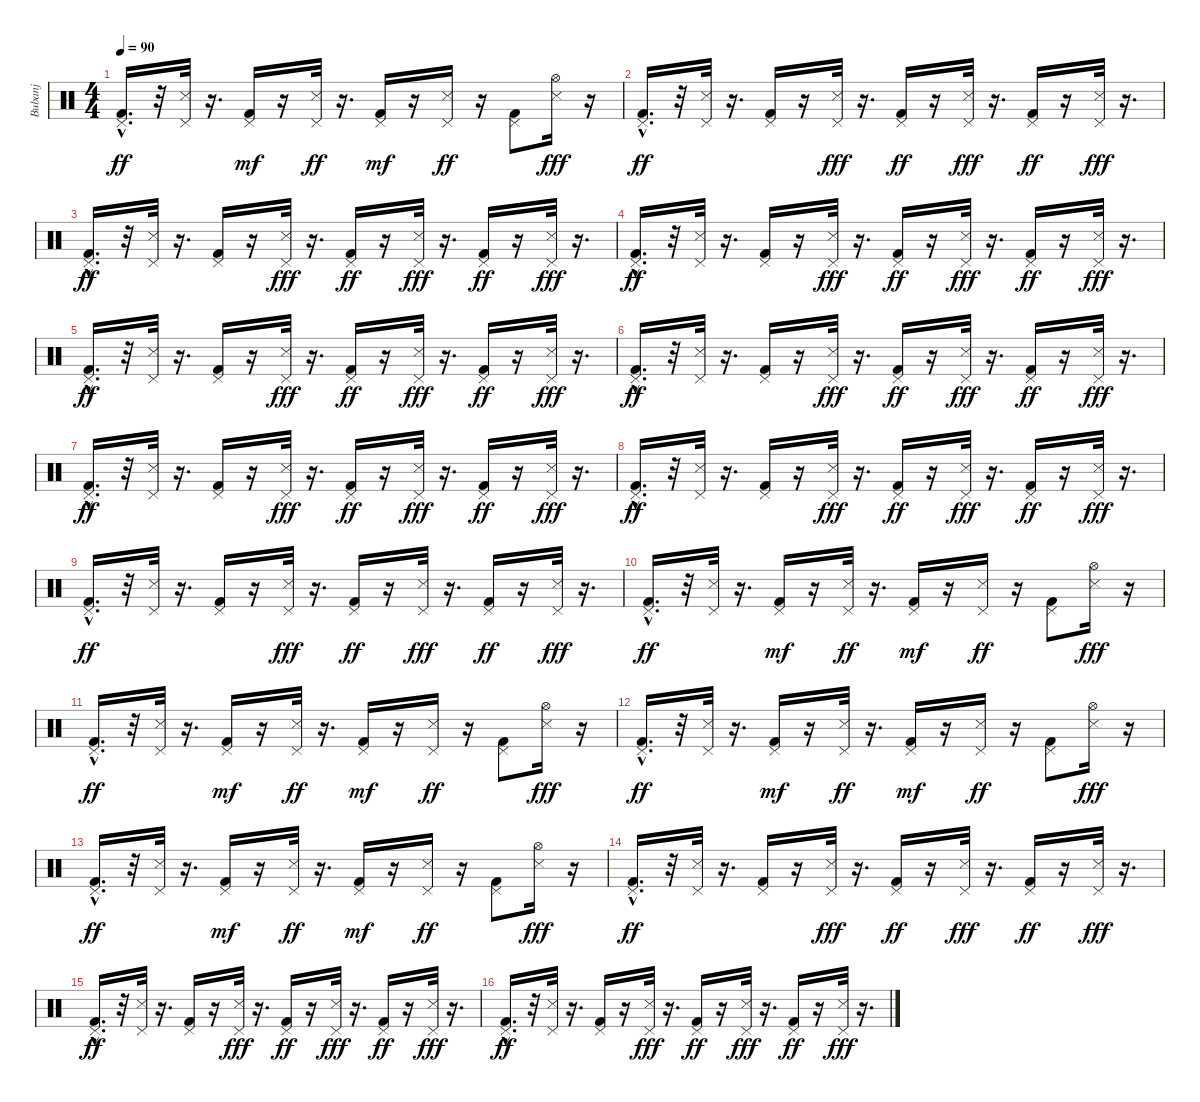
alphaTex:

\track ("Bubanj" "Bubanj") {instrument percussion}
\staff {score}
\articulation defaults
\ts (4 4)
\tempo 90
\clef neutral
\ks c
("Kick (hit) 2"{hac} "Pedal Hi-Hat (hit)").16{d dy ff} r.32 ("Snare (side stick) 3" "Pedal Hi-Hat (hit)").32 r.16{d} ("Kick (hit) 2" "Pedal Hi-Hat (hit)").16{dy mf} r.16 ("Snare (side stick) 3" "Pedal Hi-Hat (hit)").32{dy ff} r.16{d} ("Kick (hit) 2" "Pedal Hi-Hat (hit)").16{dy mf} r.16 ("Snare (side stick) 3" "Pedal Hi-Hat (hit)").16{dy ff} r.16 ("Kick (hit) 2" "Pedal Hi-Hat (hit)").8 ("Snare (side stick) 3" "Hi-Hat (open)").16{dy fff} r.16 |
("Kick (hit) 2"{hac} "Pedal Hi-Hat (hit)").16{d dy ff} r.32 ("Pedal Hi-Hat (hit)" "Snare (side stick) 3").32 r.16{d} ("Pedal Hi-Hat (hit)" "Kick (hit) 2").16 r.16 ("Snare (side stick) 3" "Pedal Hi-Hat (hit)").32{dy fff} r.16{d} ("Kick (hit) 2" "Pedal Hi-Hat (hit)").16{dy ff} r.16 ("Snare (side stick) 3" "Pedal Hi-Hat (hit)").32{dy fff} r.16{d} ("Kick (hit) 2" "Pedal Hi-Hat (hit)").16{dy ff} r.16 ("Snare (side stick) 3" "Pedal Hi-Hat (hit)").32{dy fff} r.16{d} |
("Kick (hit) 2"{hac} "Pedal Hi-Hat (hit)").16{d dy ff} r.32 ("Pedal Hi-Hat (hit)" "Snare (side stick) 3").32 r.16{d} ("Pedal Hi-Hat (hit)" "Kick (hit) 2").16 r.16 ("Snare (side stick) 3" "Pedal Hi-Hat (hit)").32{dy fff} r.16{d} ("Kick (hit) 2" "Pedal Hi-Hat (hit)").16{dy ff} r.16 ("Snare (side stick) 3" "Pedal Hi-Hat (hit)").32{dy fff} r.16{d} ("Kick (hit) 2" "Pedal Hi-Hat (hit)").16{dy ff} r.16 ("Snare (side stick) 3" "Pedal Hi-Hat (hit)").32{dy fff} r.16{d} |
("Kick (hit) 2"{hac} "Pedal Hi-Hat (hit)").16{d dy ff} r.32 ("Pedal Hi-Hat (hit)" "Snare (side stick) 3").32 r.16{d} ("Pedal Hi-Hat (hit)" "Kick (hit) 2").16 r.16 ("Snare (side stick) 3" "Pedal Hi-Hat (hit)").32{dy fff} r.16{d} ("Kick (hit) 2" "Pedal Hi-Hat (hit)").16{dy ff} r.16 ("Snare (side stick) 3" "Pedal Hi-Hat (hit)").32{dy fff} r.16{d} ("Kick (hit) 2" "Pedal Hi-Hat (hit)").16{dy ff} r.16 ("Snare (side stick) 3" "Pedal Hi-Hat (hit)").32{dy fff} r.16{d} |
("Kick (hit) 2"{hac} "Pedal Hi-Hat (hit)").16{d dy ff} r.32 ("Pedal Hi-Hat (hit)" "Snare (side stick) 3").32 r.16{d} ("Pedal Hi-Hat (hit)" "Kick (hit) 2").16 r.16 ("Snare (side stick) 3" "Pedal Hi-Hat (hit)").32{dy fff} r.16{d} ("Kick (hit) 2" "Pedal Hi-Hat (hit)").16{dy ff} r.16 ("Snare (side stick) 3" "Pedal Hi-Hat (hit)").32{dy fff} r.16{d} ("Kick (hit) 2" "Pedal Hi-Hat (hit)").16{dy ff} r.16 ("Snare (side stick) 3" "Pedal Hi-Hat (hit)").32{dy fff} r.16{d} |
("Kick (hit) 2"{hac} "Pedal Hi-Hat (hit)").16{d dy ff} r.32 ("Pedal Hi-Hat (hit)" "Snare (side stick) 3").32 r.16{d} ("Pedal Hi-Hat (hit)" "Kick (hit) 2").16 r.16 ("Snare (side stick) 3" "Pedal Hi-Hat (hit)").32{dy fff} r.16{d} ("Kick (hit) 2" "Pedal Hi-Hat (hit)").16{dy ff} r.16 ("Snare (side stick) 3" "Pedal Hi-Hat (hit)").32{dy fff} r.16{d} ("Kick (hit) 2" "Pedal Hi-Hat (hit)").16{dy ff} r.16 ("Snare (side stick) 3" "Pedal Hi-Hat (hit)").32{dy fff} r.16{d} |
("Kick (hit) 2"{hac} "Pedal Hi-Hat (hit)").16{d dy ff} r.32 ("Pedal Hi-Hat (hit)" "Snare (side stick) 3").32 r.16{d} ("Pedal Hi-Hat (hit)" "Kick (hit) 2").16 r.16 ("Snare (side stick) 3" "Pedal Hi-Hat (hit)").32{dy fff} r.16{d} ("Kick (hit) 2" "Pedal Hi-Hat (hit)").16{dy ff} r.16 ("Snare (side stick) 3" "Pedal Hi-Hat (hit)").32{dy fff} r.16{d} ("Kick (hit) 2" "Pedal Hi-Hat (hit)").16{dy ff} r.16 ("Snare (side stick) 3" "Pedal Hi-Hat (hit)").32{dy fff} r.16{d} |
("Kick (hit) 2"{hac} "Pedal Hi-Hat (hit)").16{d dy ff} r.32 ("Pedal Hi-Hat (hit)" "Snare (side stick) 3").32 r.16{d} ("Pedal Hi-Hat (hit)" "Kick (hit) 2").16 r.16 ("Snare (side stick) 3" "Pedal Hi-Hat (hit)").32{dy fff} r.16{d} ("Kick (hit) 2" "Pedal Hi-Hat (hit)").16{dy ff} r.16 ("Snare (side stick) 3" "Pedal Hi-Hat (hit)").32{dy fff} r.16{d} ("Kick (hit) 2" "Pedal Hi-Hat (hit)").16{dy ff} r.16 ("Snare (side stick) 3" "Pedal Hi-Hat (hit)").32{dy fff} r.16{d} |
("Kick (hit) 2"{hac} "Pedal Hi-Hat (hit)").16{d dy ff} r.32 ("Pedal Hi-Hat (hit)" "Snare (side stick) 3").32 r.16{d} ("Pedal Hi-Hat (hit)" "Kick (hit) 2").16 r.16 ("Snare (side stick) 3" "Pedal Hi-Hat (hit)").32{dy fff} r.16{d} ("Kick (hit) 2" "Pedal Hi-Hat (hit)").16{dy ff} r.16 ("Snare (side stick) 3" "Pedal Hi-Hat (hit)").32{dy fff} r.16{d} ("Kick (hit) 2" "Pedal Hi-Hat (hit)").16{dy ff} r.16 ("Snare (side stick) 3" "Pedal Hi-Hat (hit)").32{dy fff} r.16{d} |
("Kick (hit) 2"{hac} "Pedal Hi-Hat (hit)").16{d dy ff} r.32 ("Snare (side stick) 3" "Pedal Hi-Hat (hit)").32 r.16{d} ("Kick (hit) 2" "Pedal Hi-Hat (hit)").16{dy mf} r.16 ("Snare (side stick) 3" "Pedal Hi-Hat (hit)").32{dy ff} r.16{d} ("Kick (hit) 2" "Pedal Hi-Hat (hit)").16{dy mf} r.16 ("Snare (side stick) 3" "Pedal Hi-Hat (hit)").16{dy ff} r.16 ("Kick (hit) 2" "Pedal Hi-Hat (hit)").8 ("Snare (side stick) 3" "Hi-Hat (open)").16{dy fff} r.16 |
("Kick (hit) 2"{hac} "Pedal Hi-Hat (hit)").16{d dy ff} r.32 ("Snare (side stick) 3" "Pedal Hi-Hat (hit)").32 r.16{d} ("Kick (hit) 2" "Pedal Hi-Hat (hit)").16{dy mf} r.16 ("Snare (side stick) 3" "Pedal Hi-Hat (hit)").32{dy ff} r.16{d} ("Kick (hit) 2" "Pedal Hi-Hat (hit)").16{dy mf} r.16 ("Snare (side stick) 3" "Pedal Hi-Hat (hit)").16{dy ff} r.16 ("Kick (hit) 2" "Pedal Hi-Hat (hit)").8 ("Snare (side stick) 3" "Hi-Hat (open)").16{dy fff} r.16 |
("Kick (hit) 2"{hac} "Pedal Hi-Hat (hit)").16{d dy ff} r.32 ("Snare (side stick) 3" "Pedal Hi-Hat (hit)").32 r.16{d} ("Kick (hit) 2" "Pedal Hi-Hat (hit)").16{dy mf} r.16 ("Snare (side stick) 3" "Pedal Hi-Hat (hit)").32{dy ff} r.16{d} ("Kick (hit) 2" "Pedal Hi-Hat (hit)").16{dy mf} r.16 ("Snare (side stick) 3" "Pedal Hi-Hat (hit)").16{dy ff} r.16 ("Kick (hit) 2" "Pedal Hi-Hat (hit)").8 ("Snare (side stick) 3" "Hi-Hat (open)").16{dy fff} r.16 |
("Kick (hit) 2"{hac} "Pedal Hi-Hat (hit)").16{d dy ff} r.32 ("Snare (side stick) 3" "Pedal Hi-Hat (hit)").32 r.16{d} ("Kick (hit) 2" "Pedal Hi-Hat (hit)").16{dy mf} r.16 ("Snare (side stick) 3" "Pedal Hi-Hat (hit)").32{dy ff} r.16{d} ("Kick (hit) 2" "Pedal Hi-Hat (hit)").16{dy mf} r.16 ("Snare (side stick) 3" "Pedal Hi-Hat (hit)").16{dy ff} r.16 ("Kick (hit) 2" "Pedal Hi-Hat (hit)").8 ("Snare (side stick) 3" "Hi-Hat (open)").16{dy fff} r.16 |
("Kick (hit) 2"{hac} "Pedal Hi-Hat (hit)").16{d dy ff} r.32 ("Pedal Hi-Hat (hit)" "Snare (side stick) 3").32 r.16{d} ("Pedal Hi-Hat (hit)" "Kick (hit) 2").16 r.16 ("Snare (side stick) 3" "Pedal Hi-Hat (hit)").32{dy fff} r.16{d} ("Kick (hit) 2" "Pedal Hi-Hat (hit)").16{dy ff} r.16 ("Snare (side stick) 3" "Pedal Hi-Hat (hit)").32{dy fff} r.16{d} ("Kick (hit) 2" "Pedal Hi-Hat (hit)").16{dy ff} r.16 ("Snare (side stick) 3" "Pedal Hi-Hat (hit)").32{dy fff} r.16{d} |
("Kick (hit) 2"{hac} "Pedal Hi-Hat (hit)").16{d dy ff} r.32 ("Pedal Hi-Hat (hit)" "Snare (side stick) 3").32 r.16{d} ("Pedal Hi-Hat (hit)" "Kick (hit) 2").16 r.16 ("Snare (side stick) 3" "Pedal Hi-Hat (hit)").32{dy fff} r.16{d} ("Kick (hit) 2" "Pedal Hi-Hat (hit)").16{dy ff} r.16 ("Snare (side stick) 3" "Pedal Hi-Hat (hit)").32{dy fff} r.16{d} ("Kick (hit) 2" "Pedal Hi-Hat (hit)").16{dy ff} r.16 ("Snare (side stick) 3" "Pedal Hi-Hat (hit)").32{dy fff} r.16{d} |
("Kick (hit) 2"{hac} "Pedal Hi-Hat (hit)").16{d dy ff} r.32 ("Pedal Hi-Hat (hit)" "Snare (side stick) 3").32 r.16{d} ("Pedal Hi-Hat (hit)" "Kick (hit) 2").16 r.16 ("Snare (side stick) 3" "Pedal Hi-Hat (hit)").32{dy fff} r.16{d} ("Kick (hit) 2" "Pedal Hi-Hat (hit)").16{dy ff} r.16 ("Snare (side stick) 3" "Pedal Hi-Hat (hit)").32{dy fff} r.16{d} ("Kick (hit) 2" "Pedal Hi-Hat (hit)").16{dy ff} r.16 ("Snare (side stick) 3" "Pedal Hi-Hat (hit)").32{dy fff} r.16{d}
